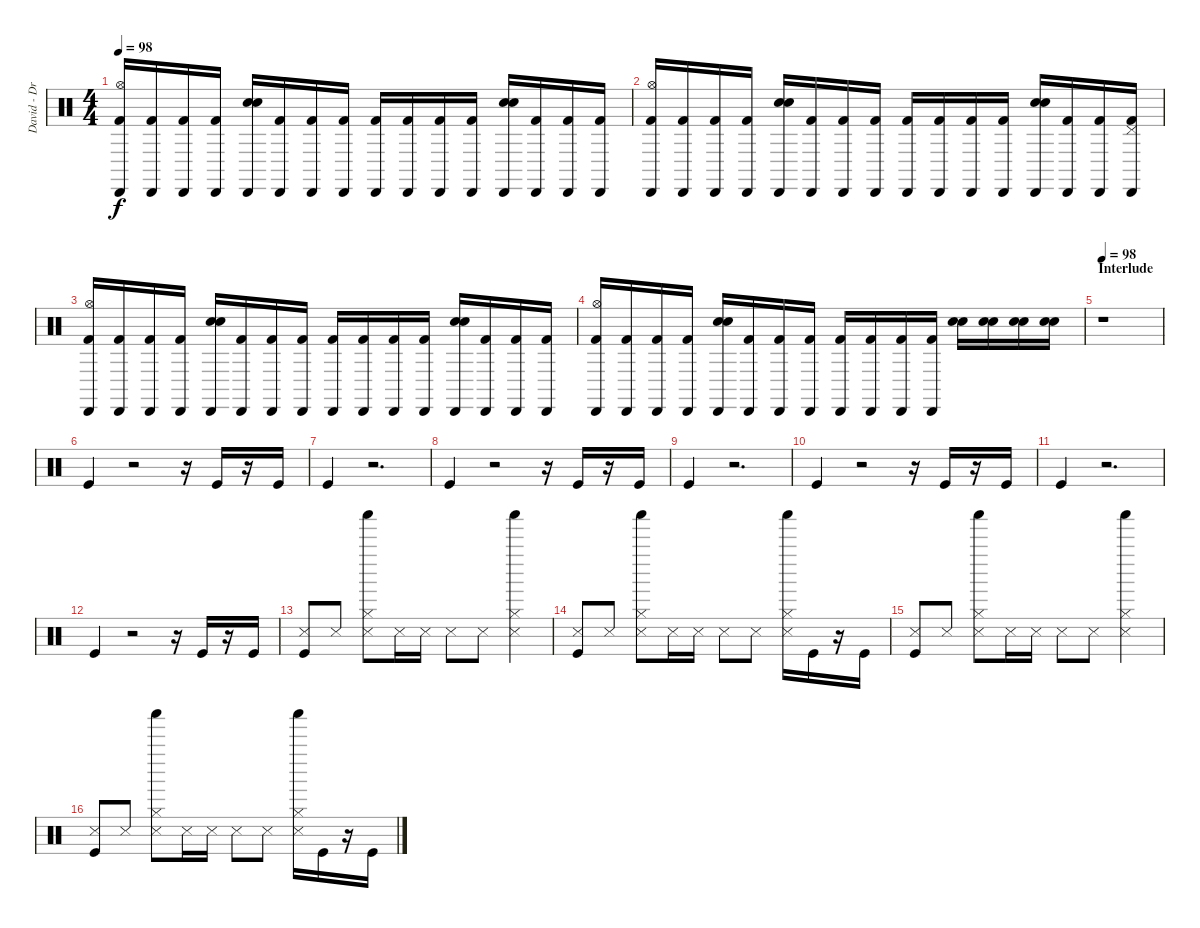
\track ("David - Drums" "David - Dr") {instrument percussion}
\staff {score}
\articulation defaults
\ts (4 4)
\tempo 98
\clef neutral
\ks c
("Cabasa (hit)" "Hi-Hat (open)" "Kick (hit) 2").16{dy f} ("Cabasa (hit)" "Kick (hit) 2").16 ("Cabasa (hit)" "Kick (hit) 2").16 ("Cabasa (hit)" "Kick (hit) 2").16 ("Cabasa (hit)" "Electric Snare (hit)" "Snare (hit) 2").16 ("Cabasa (hit)" "Kick (hit) 2").16 ("Cabasa (hit)" "Kick (hit) 2").16 ("Cabasa (hit)" "Kick (hit) 2").16 ("Cabasa (hit)" "Kick (hit) 2").16 ("Cabasa (hit)" "Kick (hit) 2").16 ("Cabasa (hit)" "Kick (hit) 2").16 ("Cabasa (hit)" "Kick (hit) 2").16 ("Cabasa (hit)" "Electric Snare (hit)" "Snare (hit) 2").16 ("Cabasa (hit)" "Kick (hit) 2").16 ("Cabasa (hit)" "Kick (hit) 2").16 ("Cabasa (hit)" "Kick (hit) 2").16 |
("Cabasa (hit)" "Hi-Hat (open)" "Kick (hit) 2").16 ("Cabasa (hit)" "Kick (hit) 2").16 ("Cabasa (hit)" "Kick (hit) 2").16 ("Cabasa (hit)" "Kick (hit) 2").16 ("Cabasa (hit)" "Electric Snare (hit)" "Snare (hit) 2").16 ("Cabasa (hit)" "Kick (hit) 2").16 ("Cabasa (hit)" "Kick (hit) 2").16 ("Cabasa (hit)" "Kick (hit) 2").16 ("Cabasa (hit)" "Kick (hit) 2").16 ("Cabasa (hit)" "Kick (hit) 2").16 ("Cabasa (hit)" "Kick (hit) 2").16 ("Cabasa (hit)" "Kick (hit) 2").16 ("Cabasa (hit)" "Electric Snare (hit)" "Snare (hit) 2").16 ("Cabasa (hit)" "Kick (hit) 2").16 ("Cabasa (hit)" "Kick (hit) 2").16 ("Cabasa (hit)" "Pedal Hi-Hat (hit)" "Kick (hit) 2").16 |
("Cabasa (hit)" "Hi-Hat (open)" "Kick (hit) 2").16 ("Cabasa (hit)" "Kick (hit) 2").16 ("Cabasa (hit)" "Kick (hit) 2").16 ("Cabasa (hit)" "Kick (hit) 2").16 ("Cabasa (hit)" "Electric Snare (hit)" "Snare (hit) 2").16 ("Cabasa (hit)" "Kick (hit) 2").16 ("Cabasa (hit)" "Kick (hit) 2").16 ("Cabasa (hit)" "Kick (hit) 2").16 ("Cabasa (hit)" "Kick (hit) 2").16 ("Cabasa (hit)" "Kick (hit) 2").16 ("Cabasa (hit)" "Kick (hit) 2").16 ("Cabasa (hit)" "Kick (hit) 2").16 ("Cabasa (hit)" "Electric Snare (hit)" "Snare (hit) 2").16 ("Cabasa (hit)" "Kick (hit) 2").16 ("Cabasa (hit)" "Kick (hit) 2").16 ("Cabasa (hit)" "Kick (hit) 2").16 |
("Cabasa (hit)" "Hi-Hat (open)" "Kick (hit) 2").16 ("Cabasa (hit)" "Kick (hit) 2").16 ("Cabasa (hit)" "Kick (hit) 2").16 ("Cabasa (hit)" "Kick (hit) 2").16 ("Cabasa (hit)" "Electric Snare (hit)" "Snare (hit) 2").16 ("Cabasa (hit)" "Kick (hit) 2").16 ("Cabasa (hit)" "Kick (hit) 2").16 ("Cabasa (hit)" "Kick (hit) 2").16 ("Cabasa (hit)" "Kick (hit) 2").16 ("Cabasa (hit)" "Kick (hit) 2").16 ("Cabasa (hit)" "Kick (hit) 2").16 ("Cabasa (hit)" "Kick (hit) 2").16 ("Electric Snare (hit)" "Snare (hit) 2").16 ("Electric Snare (hit)" "Snare (hit) 2").16 ("Electric Snare (hit)" "Snare (hit) 2").16 ("Electric Snare (hit)" "Snare (hit) 2").16 |
\section ("" "Interlude")
\tempo 98
r.1{volume 16} |
"Kick (hit)".4 r.2 r.16 "Kick (hit)".16 r.16 "Kick (hit)".16 |
"Kick (hit)".4 r.2{d} |
"Kick (hit)".4 r.2 r.16 "Kick (hit)".16 r.16 "Kick (hit)".16 |
"Kick (hit)".4 r.2{d} |
"Kick (hit)".4 r.2 r.16 "Kick (hit)".16 r.16 "Kick (hit)".16 |
"Kick (hit)".4 r.2{d} |
"Kick (hit)".4 r.2 r.16 "Kick (hit)".16 r.16 "Kick (hit)".16 |
("Kick (hit)" "Metronome (hit)").8 "Metronome (hit)".8 ("Shaker (hit)" "Hi-Hat (closed)" "Metronome (hit)").8 "Metronome (hit)".16 "Metronome (hit)".16 "Metronome (hit)".8 "Metronome (hit)".8 ("Shaker (hit)" "Hi-Hat (closed)" "Metronome (hit)").4 |
("Kick (hit)" "Metronome (hit)").8 "Metronome (hit)".8 ("Shaker (hit)" "Hi-Hat (closed)" "Metronome (hit)").8 "Metronome (hit)".16 "Metronome (hit)".16 "Metronome (hit)".8 "Metronome (hit)".8 ("Shaker (hit)" "Hi-Hat (closed)" "Metronome (hit)").16 "Kick (hit)".16 r.16 "Kick (hit)".16 |
("Kick (hit)" "Metronome (hit)").8 "Metronome (hit)".8 ("Shaker (hit)" "Hi-Hat (closed)" "Metronome (hit)").8 "Metronome (hit)".16 "Metronome (hit)".16 "Metronome (hit)".8 "Metronome (hit)".8 ("Shaker (hit)" "Hi-Hat (closed)" "Metronome (hit)").4 |
("Kick (hit)" "Metronome (hit)").8 "Metronome (hit)".8 ("Shaker (hit)" "Hi-Hat (closed)" "Metronome (hit)").8 "Metronome (hit)".16 "Metronome (hit)".16 "Metronome (hit)".8 "Metronome (hit)".8 ("Shaker (hit)" "Hi-Hat (closed)" "Metronome (hit)").16 "Kick (hit)".16 r.16 "Kick (hit)".16
